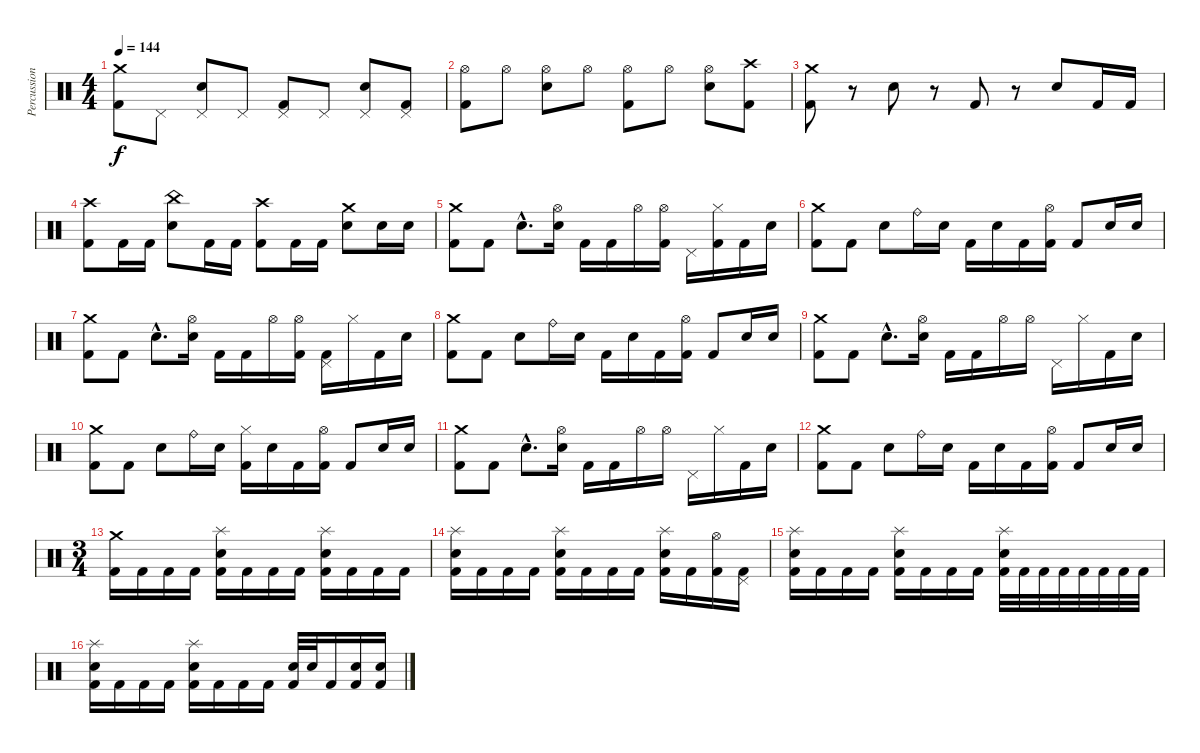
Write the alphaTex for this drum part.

\track ("Percussion" "Percussion") {instrument percussion}
\staff {score}
\articulation defaults
\ts (4 4)
\tempo 144
\clef neutral
\ks c
("Crash medium (hit)" "Kick (hit) 2").8{dy f} "Pedal Hi-Hat (hit)".8 ("Pedal Hi-Hat (hit)" "Electric Snare (hit)").8 "Pedal Hi-Hat (hit)".8 ("Pedal Hi-Hat (hit)" "Kick (hit) 2").8 "Pedal Hi-Hat (hit)".8 ("Pedal Hi-Hat (hit)" "Electric Snare (hit)").8 ("Pedal Hi-Hat (hit)" "Kick (hit) 2").8 |
("Hi-Hat (open)" "Kick (hit) 2").8 "Hi-Hat (open)".8 ("Hi-Hat (open)" "Electric Snare (hit)").8 "Hi-Hat (open)".8 ("Hi-Hat (open)" "Kick (hit) 2").8 "Hi-Hat (open)".8 ("Hi-Hat (open)" "Electric Snare (hit)").8 ("Crash high (hit)" "Kick (hit) 2").8 |
("Crash medium (hit)" "Kick (hit) 2").8 r.8 "Electric Snare (hit)".8 r.8 "Kick (hit) 2".8 r.8 "Electric Snare (hit)".8 "Kick (hit) 2".16 "Kick (hit) 2".16 |
("Crash high (hit)" "Kick (hit) 2").8 "Kick (hit) 2".16 "Kick (hit) 2".16 ("China (hit)" "Electric Snare (hit)").8 "Kick (hit) 2".16 "Kick (hit) 2".16 ("Crash high (hit)" "Kick (hit) 2").8 "Kick (hit) 2".16 "Kick (hit) 2".16 ("Crash medium (hit)" "Electric Snare (hit)").8 "Electric Snare (hit)".16 "Electric Snare (hit)".16 |
("Crash medium (hit)" "Kick (hit) 2").8 "Kick (hit) 2".8 "Electric Snare (hit)"{hac}.8{d} ("Hi-Hat (open)" "Electric Snare (hit)").16 "Kick (hit) 2".16 "Kick (hit) 2".16 "Hi-Hat (open)".16 ("Hi-Hat (open)" "Kick (hit) 2").16 "Pedal Hi-Hat (hit)".16 ("Hi-Hat (closed)" "Kick (hit) 2").16 "Kick (hit) 2".16 "Electric Snare (hit)".16 |
("Crash medium (hit)" "Kick (hit) 2").8 "Kick (hit) 2".8 "Electric Snare (hit)".8 "Ride (bell)".16 "Electric Snare (hit)".16 "Kick (hit) 2".16 "Electric Snare (hit)".16 "Kick (hit) 2".16 ("Hi-Hat (open)" "Kick (hit) 2").16 "Kick (hit) 2".8 "Electric Snare (hit)".16 "Electric Snare (hit)".16 |
("Crash medium (hit)" "Kick (hit) 2").8 "Kick (hit) 2".8 "Electric Snare (hit)"{hac}.8{d} ("Hi-Hat (open)" "Electric Snare (hit)").16 "Kick (hit) 2".16 "Kick (hit) 2".16 "Hi-Hat (open)".16 ("Hi-Hat (open)" "Kick (hit) 2").16 ("Pedal Hi-Hat (hit)" "Kick (hit) 2").16 "Hi-Hat (closed)".16 "Kick (hit) 2".16 "Electric Snare (hit)".16 |
("Crash medium (hit)" "Kick (hit) 2").8 "Kick (hit) 2".8 "Electric Snare (hit)".8 "Ride (bell)".16 "Electric Snare (hit)".16 "Kick (hit) 2".16 "Electric Snare (hit)".16 "Kick (hit) 2".16 ("Hi-Hat (open)" "Kick (hit) 2").16 "Kick (hit) 2".8 "Electric Snare (hit)".16 "Electric Snare (hit)".16 |
("Crash medium (hit)" "Kick (hit) 2").8 "Kick (hit) 2".8 "Electric Snare (hit)"{hac}.8{d} ("Hi-Hat (open)" "Electric Snare (hit)").16 "Kick (hit) 2".16 "Kick (hit) 2".16 "Hi-Hat (open)".16 "Hi-Hat (open)".16 "Pedal Hi-Hat (hit)".16 "Hi-Hat (closed)".16 "Kick (hit) 2".16 "Electric Snare (hit)".16 |
("Crash medium (hit)" "Kick (hit) 2").8 "Kick (hit) 2".8 "Electric Snare (hit)".8 "Ride (bell)".16 "Electric Snare (hit)".16 ("Hi-Hat (closed)" "Kick (hit) 2").16 "Electric Snare (hit)".16 "Kick (hit) 2".16 ("Hi-Hat (open)" "Kick (hit) 2").16 "Kick (hit) 2".8 "Electric Snare (hit)".16 "Electric Snare (hit)".16 |
("Crash medium (hit)" "Kick (hit) 2").8 "Kick (hit) 2".8 "Electric Snare (hit)"{hac}.8{d} ("Hi-Hat (open)" "Electric Snare (hit)").16 "Kick (hit) 2".16 "Kick (hit) 2".16 "Hi-Hat (open)".16 "Hi-Hat (open)".16 "Pedal Hi-Hat (hit)".16 "Hi-Hat (closed)".16 "Kick (hit) 2".16 "Electric Snare (hit)".16 |
("Crash medium (hit)" "Kick (hit) 2").8 "Kick (hit) 2".8 "Electric Snare (hit)".8 "Ride (bell)".16 "Electric Snare (hit)".16 "Kick (hit) 2".16 "Electric Snare (hit)".16 "Kick (hit) 2".16 ("Hi-Hat (open)" "Kick (hit) 2").16 "Kick (hit) 2".8 "Electric Snare (hit)".16 "Electric Snare (hit)".16 |
\ts (3 4)
("Crash medium (hit)" "Kick (hit) 2").16 "Kick (hit) 2".16 "Kick (hit) 2".16 "Kick (hit) 2".16 ("Splash (hit)" "Electric Snare (hit)" "Kick (hit) 2").16 "Kick (hit) 2".16 "Kick (hit) 2".16 "Kick (hit) 2".16 ("Splash (hit)" "Electric Snare (hit)" "Kick (hit) 2").16 "Kick (hit) 2".16 "Kick (hit) 2".16 "Kick (hit) 2".16 |
("Splash (hit)" "Electric Snare (hit)" "Kick (hit) 2").16 "Kick (hit) 2".16 "Kick (hit) 2".16 "Kick (hit) 2".16 ("Splash (hit)" "Electric Snare (hit)" "Kick (hit) 2").16 "Kick (hit) 2".16 "Kick (hit) 2".16 "Kick (hit) 2".16 ("Splash (hit)" "Electric Snare (hit)" "Kick (hit) 2").16 "Kick (hit) 2".16 ("Hi-Hat (open)" "Kick (hit) 2").16 ("Pedal Hi-Hat (hit)" "Kick (hit) 2").16 |
("Splash (hit)" "Electric Snare (hit)" "Kick (hit) 2").16 "Kick (hit) 2".16 "Kick (hit) 2".16 "Kick (hit) 2".16 ("Splash (hit)" "Electric Snare (hit)" "Kick (hit) 2").16 "Kick (hit) 2".16 "Kick (hit) 2".16 "Kick (hit) 2".16 ("Splash (hit)" "Electric Snare (hit)" "Kick (hit) 2").32 "Kick (hit) 2".32 "Kick (hit) 2".32 "Kick (hit) 2".32 "Kick (hit) 2".32 "Kick (hit) 2".32 "Kick (hit) 2".32 "Kick (hit) 2".32 |
("Splash (hit)" "Electric Snare (hit)" "Kick (hit) 2").16 "Kick (hit) 2".16 "Kick (hit) 2".16 "Kick (hit) 2".16 ("Splash (hit)" "Electric Snare (hit)" "Kick (hit) 2").16 "Kick (hit) 2".16 "Kick (hit) 2".16 "Kick (hit) 2".16 ("Electric Snare (hit)" "Kick (hit) 2").32 "Electric Snare (hit)".32 "Kick (hit) 2".16 ("Electric Snare (hit)" "Kick (hit) 2").16 ("Electric Snare (hit)" "Kick (hit) 2").16
